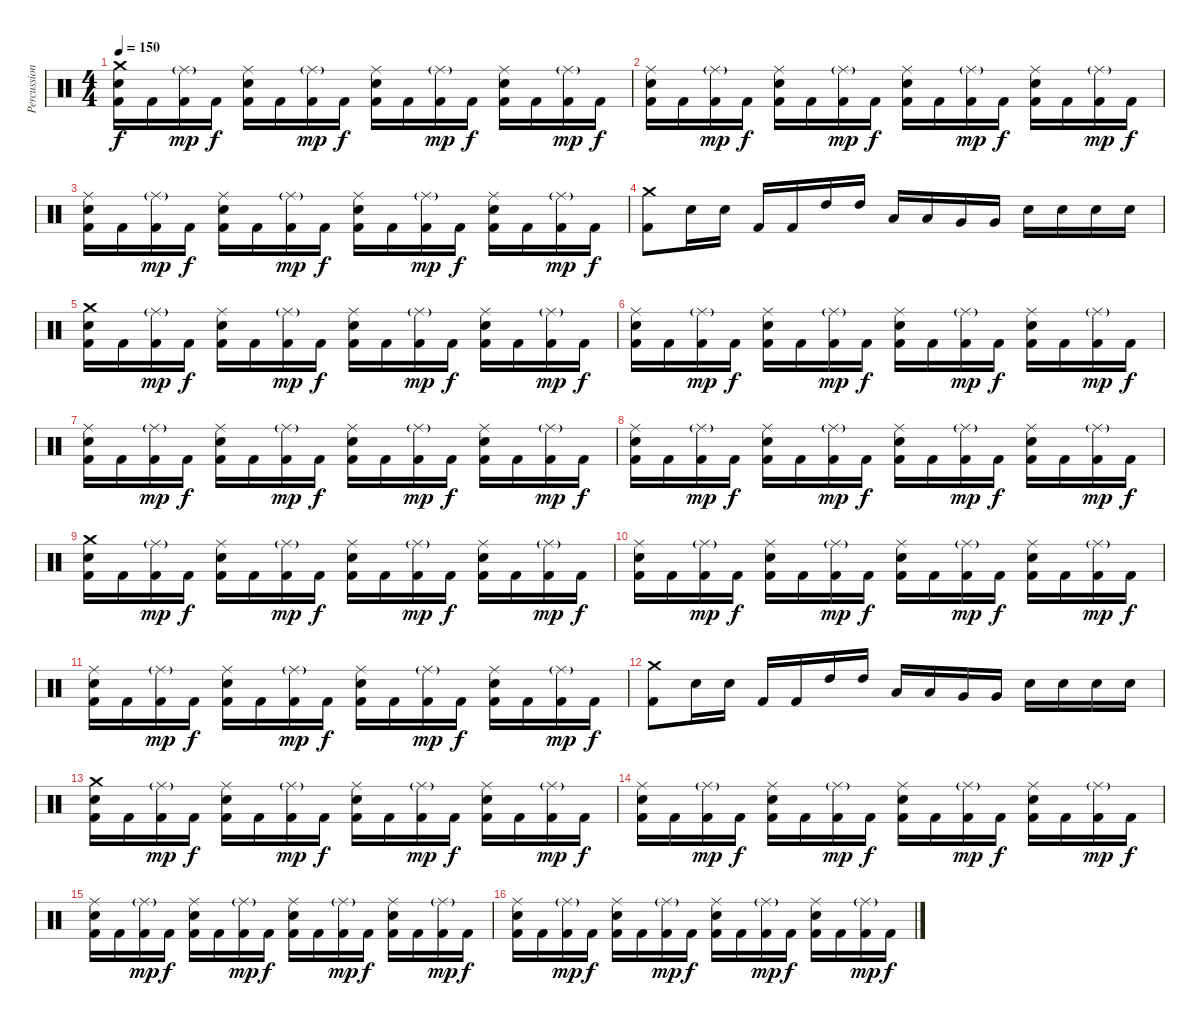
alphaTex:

\track ("Percussions" "Percussion") {instrument percussion}
\staff {score}
\articulation defaults
\ts (4 4)
\tempo 150
\clef neutral
\ks c
("Crash medium (hit)" "Snare (hit) 2" "Kick (hit) 2").16{dy f} "Kick (hit) 2".16 ("Ride (middle)"{g} "Kick (hit) 2").16{dy mp} "Kick (hit) 2".16{dy f} ("Ride (middle)" "Snare (hit) 2" "Kick (hit) 2").16 "Kick (hit) 2".16 ("Ride (middle)"{g} "Kick (hit) 2").16{dy mp} "Kick (hit) 2".16{dy f} ("Ride (middle)" "Snare (hit) 2" "Kick (hit) 2").16 "Kick (hit) 2".16 ("Ride (middle)"{g} "Kick (hit) 2").16{dy mp} "Kick (hit) 2".16{dy f} ("Ride (middle)" "Snare (hit) 2" "Kick (hit) 2").16 "Kick (hit) 2".16 ("Ride (middle)"{g} "Kick (hit) 2").16{dy mp} "Kick (hit) 2".16{dy f} |
("Ride (middle)" "Snare (hit) 2" "Kick (hit) 2").16 "Kick (hit) 2".16 ("Ride (middle)"{g} "Kick (hit) 2").16{dy mp} "Kick (hit) 2".16{dy f} ("Ride (middle)" "Snare (hit) 2" "Kick (hit) 2").16 "Kick (hit) 2".16 ("Ride (middle)"{g} "Kick (hit) 2").16{dy mp} "Kick (hit) 2".16{dy f} ("Ride (middle)" "Snare (hit) 2" "Kick (hit) 2").16 "Kick (hit) 2".16 ("Ride (middle)"{g} "Kick (hit) 2").16{dy mp} "Kick (hit) 2".16{dy f} ("Ride (middle)" "Snare (hit) 2" "Kick (hit) 2").16 "Kick (hit) 2".16 ("Ride (middle)"{g} "Kick (hit) 2").16{dy mp} "Kick (hit) 2".16{dy f} |
("Ride (middle)" "Snare (hit) 2" "Kick (hit) 2").16 "Kick (hit) 2".16 ("Ride (middle)"{g} "Kick (hit) 2").16{dy mp} "Kick (hit) 2".16{dy f} ("Ride (middle)" "Snare (hit) 2" "Kick (hit) 2").16 "Kick (hit) 2".16 ("Ride (middle)"{g} "Kick (hit) 2").16{dy mp} "Kick (hit) 2".16{dy f} ("Ride (middle)" "Snare (hit) 2" "Kick (hit) 2").16 "Kick (hit) 2".16 ("Ride (middle)"{g} "Kick (hit) 2").16{dy mp} "Kick (hit) 2".16{dy f} ("Ride (middle)" "Snare (hit) 2" "Kick (hit) 2").16 "Kick (hit) 2".16 ("Ride (middle)"{g} "Kick (hit) 2").16{dy mp} "Kick (hit) 2".16{dy f} |
("Crash medium (hit)" "Kick (hit) 2").8 "Snare (hit) 2".16 "Snare (hit) 2".16 "Kick (hit) 2".16 "Kick (hit) 2".16 "High Tom (hit)".16 "High Tom (hit)".16 "Low Tom (hit)".16 "Low Tom (hit)".16 "Very Low Tom (hit)".16 "Very Low Tom (hit)".16 "Snare (hit) 2".16 "Snare (hit) 2".16 "Snare (hit) 2".16 "Snare (hit) 2".16 |
("Crash medium (hit)" "Snare (hit) 2" "Kick (hit) 2").16 "Kick (hit) 2".16 ("Ride (middle)"{g} "Kick (hit) 2").16{dy mp} "Kick (hit) 2".16{dy f} ("Ride (middle)" "Snare (hit) 2" "Kick (hit) 2").16 "Kick (hit) 2".16 ("Ride (middle)"{g} "Kick (hit) 2").16{dy mp} "Kick (hit) 2".16{dy f} ("Ride (middle)" "Snare (hit) 2" "Kick (hit) 2").16 "Kick (hit) 2".16 ("Ride (middle)"{g} "Kick (hit) 2").16{dy mp} "Kick (hit) 2".16{dy f} ("Ride (middle)" "Snare (hit) 2" "Kick (hit) 2").16 "Kick (hit) 2".16 ("Ride (middle)"{g} "Kick (hit) 2").16{dy mp} "Kick (hit) 2".16{dy f} |
("Ride (middle)" "Snare (hit) 2" "Kick (hit) 2").16 "Kick (hit) 2".16 ("Ride (middle)"{g} "Kick (hit) 2").16{dy mp} "Kick (hit) 2".16{dy f} ("Ride (middle)" "Snare (hit) 2" "Kick (hit) 2").16 "Kick (hit) 2".16 ("Ride (middle)"{g} "Kick (hit) 2").16{dy mp} "Kick (hit) 2".16{dy f} ("Ride (middle)" "Snare (hit) 2" "Kick (hit) 2").16 "Kick (hit) 2".16 ("Ride (middle)"{g} "Kick (hit) 2").16{dy mp} "Kick (hit) 2".16{dy f} ("Ride (middle)" "Snare (hit) 2" "Kick (hit) 2").16 "Kick (hit) 2".16 ("Ride (middle)"{g} "Kick (hit) 2").16{dy mp} "Kick (hit) 2".16{dy f} |
("Ride (middle)" "Snare (hit) 2" "Kick (hit) 2").16 "Kick (hit) 2".16 ("Ride (middle)"{g} "Kick (hit) 2").16{dy mp} "Kick (hit) 2".16{dy f} ("Ride (middle)" "Snare (hit) 2" "Kick (hit) 2").16 "Kick (hit) 2".16 ("Ride (middle)"{g} "Kick (hit) 2").16{dy mp} "Kick (hit) 2".16{dy f} ("Ride (middle)" "Snare (hit) 2" "Kick (hit) 2").16 "Kick (hit) 2".16 ("Ride (middle)"{g} "Kick (hit) 2").16{dy mp} "Kick (hit) 2".16{dy f} ("Ride (middle)" "Snare (hit) 2" "Kick (hit) 2").16 "Kick (hit) 2".16 ("Ride (middle)"{g} "Kick (hit) 2").16{dy mp} "Kick (hit) 2".16{dy f} |
("Ride (middle)" "Snare (hit) 2" "Kick (hit) 2").16 "Kick (hit) 2".16 ("Ride (middle)"{g} "Kick (hit) 2").16{dy mp} "Kick (hit) 2".16{dy f} ("Ride (middle)" "Snare (hit) 2" "Kick (hit) 2").16 "Kick (hit) 2".16 ("Ride (middle)"{g} "Kick (hit) 2").16{dy mp} "Kick (hit) 2".16{dy f} ("Ride (middle)" "Snare (hit) 2" "Kick (hit) 2").16 "Kick (hit) 2".16 ("Ride (middle)"{g} "Kick (hit) 2").16{dy mp} "Kick (hit) 2".16{dy f} ("Ride (middle)" "Snare (hit) 2" "Kick (hit) 2").16 "Kick (hit) 2".16 ("Ride (middle)"{g} "Kick (hit) 2").16{dy mp} "Kick (hit) 2".16{dy f} |
("Crash medium (hit)" "Snare (hit) 2" "Kick (hit) 2").16 "Kick (hit) 2".16 ("Ride (middle)"{g} "Kick (hit) 2").16{dy mp} "Kick (hit) 2".16{dy f} ("Ride (middle)" "Snare (hit) 2" "Kick (hit) 2").16 "Kick (hit) 2".16 ("Ride (middle)"{g} "Kick (hit) 2").16{dy mp} "Kick (hit) 2".16{dy f} ("Ride (middle)" "Snare (hit) 2" "Kick (hit) 2").16 "Kick (hit) 2".16 ("Ride (middle)"{g} "Kick (hit) 2").16{dy mp} "Kick (hit) 2".16{dy f} ("Ride (middle)" "Snare (hit) 2" "Kick (hit) 2").16 "Kick (hit) 2".16 ("Ride (middle)"{g} "Kick (hit) 2").16{dy mp} "Kick (hit) 2".16{dy f} |
("Ride (middle)" "Snare (hit) 2" "Kick (hit) 2").16 "Kick (hit) 2".16 ("Ride (middle)"{g} "Kick (hit) 2").16{dy mp} "Kick (hit) 2".16{dy f} ("Ride (middle)" "Snare (hit) 2" "Kick (hit) 2").16 "Kick (hit) 2".16 ("Ride (middle)"{g} "Kick (hit) 2").16{dy mp} "Kick (hit) 2".16{dy f} ("Ride (middle)" "Snare (hit) 2" "Kick (hit) 2").16 "Kick (hit) 2".16 ("Ride (middle)"{g} "Kick (hit) 2").16{dy mp} "Kick (hit) 2".16{dy f} ("Ride (middle)" "Snare (hit) 2" "Kick (hit) 2").16 "Kick (hit) 2".16 ("Ride (middle)"{g} "Kick (hit) 2").16{dy mp} "Kick (hit) 2".16{dy f} |
("Ride (middle)" "Snare (hit) 2" "Kick (hit) 2").16 "Kick (hit) 2".16 ("Ride (middle)"{g} "Kick (hit) 2").16{dy mp} "Kick (hit) 2".16{dy f} ("Ride (middle)" "Snare (hit) 2" "Kick (hit) 2").16 "Kick (hit) 2".16 ("Ride (middle)"{g} "Kick (hit) 2").16{dy mp} "Kick (hit) 2".16{dy f} ("Ride (middle)" "Snare (hit) 2" "Kick (hit) 2").16 "Kick (hit) 2".16 ("Ride (middle)"{g} "Kick (hit) 2").16{dy mp} "Kick (hit) 2".16{dy f} ("Ride (middle)" "Snare (hit) 2" "Kick (hit) 2").16 "Kick (hit) 2".16 ("Ride (middle)"{g} "Kick (hit) 2").16{dy mp} "Kick (hit) 2".16{dy f} |
("Crash medium (hit)" "Kick (hit) 2").8 "Snare (hit) 2".16 "Snare (hit) 2".16 "Kick (hit) 2".16 "Kick (hit) 2".16 "High Tom (hit)".16 "High Tom (hit)".16 "Low Tom (hit)".16 "Low Tom (hit)".16 "Very Low Tom (hit)".16 "Very Low Tom (hit)".16 "Snare (hit) 2".16 "Snare (hit) 2".16 "Snare (hit) 2".16 "Snare (hit) 2".16 |
("Crash medium (hit)" "Snare (hit) 2" "Kick (hit) 2").16 "Kick (hit) 2".16 ("Ride (middle)"{g} "Kick (hit) 2").16{dy mp} "Kick (hit) 2".16{dy f} ("Ride (middle)" "Snare (hit) 2" "Kick (hit) 2").16 "Kick (hit) 2".16 ("Ride (middle)"{g} "Kick (hit) 2").16{dy mp} "Kick (hit) 2".16{dy f} ("Ride (middle)" "Snare (hit) 2" "Kick (hit) 2").16 "Kick (hit) 2".16 ("Ride (middle)"{g} "Kick (hit) 2").16{dy mp} "Kick (hit) 2".16{dy f} ("Ride (middle)" "Snare (hit) 2" "Kick (hit) 2").16 "Kick (hit) 2".16 ("Ride (middle)"{g} "Kick (hit) 2").16{dy mp} "Kick (hit) 2".16{dy f} |
("Ride (middle)" "Snare (hit) 2" "Kick (hit) 2").16 "Kick (hit) 2".16 ("Ride (middle)"{g} "Kick (hit) 2").16{dy mp} "Kick (hit) 2".16{dy f} ("Ride (middle)" "Snare (hit) 2" "Kick (hit) 2").16 "Kick (hit) 2".16 ("Ride (middle)"{g} "Kick (hit) 2").16{dy mp} "Kick (hit) 2".16{dy f} ("Ride (middle)" "Snare (hit) 2" "Kick (hit) 2").16 "Kick (hit) 2".16 ("Ride (middle)"{g} "Kick (hit) 2").16{dy mp} "Kick (hit) 2".16{dy f} ("Ride (middle)" "Snare (hit) 2" "Kick (hit) 2").16 "Kick (hit) 2".16 ("Ride (middle)"{g} "Kick (hit) 2").16{dy mp} "Kick (hit) 2".16{dy f} |
("Ride (middle)" "Snare (hit) 2" "Kick (hit) 2").16 "Kick (hit) 2".16 ("Ride (middle)"{g} "Kick (hit) 2").16{dy mp} "Kick (hit) 2".16{dy f} ("Ride (middle)" "Snare (hit) 2" "Kick (hit) 2").16 "Kick (hit) 2".16 ("Ride (middle)"{g} "Kick (hit) 2").16{dy mp} "Kick (hit) 2".16{dy f} ("Ride (middle)" "Snare (hit) 2" "Kick (hit) 2").16 "Kick (hit) 2".16 ("Ride (middle)"{g} "Kick (hit) 2").16{dy mp} "Kick (hit) 2".16{dy f} ("Ride (middle)" "Snare (hit) 2" "Kick (hit) 2").16 "Kick (hit) 2".16 ("Ride (middle)"{g} "Kick (hit) 2").16{dy mp} "Kick (hit) 2".16{dy f} |
("Ride (middle)" "Snare (hit) 2" "Kick (hit) 2").16 "Kick (hit) 2".16 ("Ride (middle)"{g} "Kick (hit) 2").16{dy mp} "Kick (hit) 2".16{dy f} ("Ride (middle)" "Snare (hit) 2" "Kick (hit) 2").16 "Kick (hit) 2".16 ("Ride (middle)"{g} "Kick (hit) 2").16{dy mp} "Kick (hit) 2".16{dy f} ("Ride (middle)" "Snare (hit) 2" "Kick (hit) 2").16 "Kick (hit) 2".16 ("Ride (middle)"{g} "Kick (hit) 2").16{dy mp} "Kick (hit) 2".16{dy f} ("Ride (middle)" "Snare (hit) 2" "Kick (hit) 2").16 "Kick (hit) 2".16 ("Ride (middle)"{g} "Kick (hit) 2").16{dy mp} "Kick (hit) 2".16{dy f}
